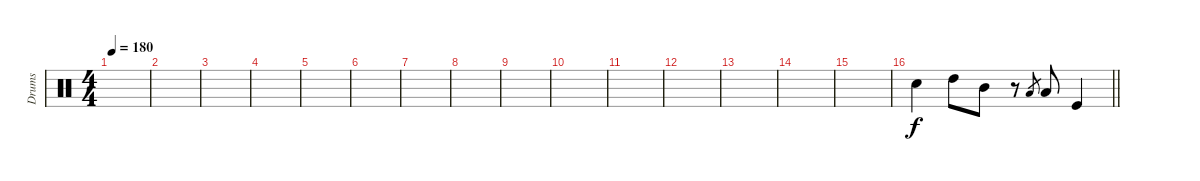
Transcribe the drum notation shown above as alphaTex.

\track ("Drums" "Drums") {instrument percussion}
\staff {score}
\articulation defaults
\ts (4 4)
\tempo 180
\clef neutral
\ks c
|
|
|
|
|
|
|
|
|
|
|
|
|
|
|
\barLineRight lightlight "Snare (hit) 2".4 "High Tom (hit)".8 "Mid Tom (hit)".8
r.8 "Low Tom (hit)".8{gr} "Low Tom (hit)".8 "Kick (hit)".4
